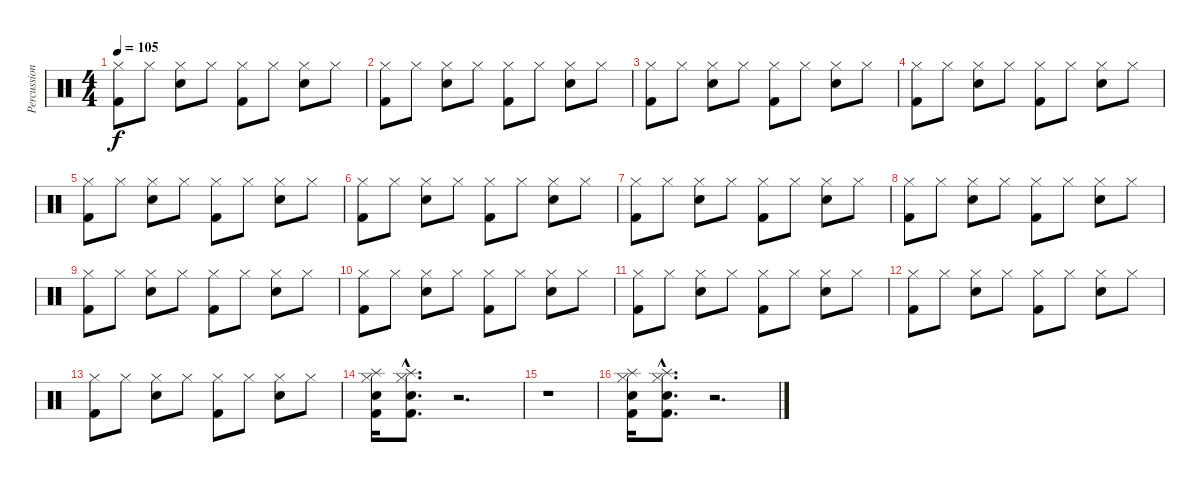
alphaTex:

\track ("Percussions" "Percussion") {instrument percussion}
\staff {score}
\articulation defaults
\ts (4 4)
\tempo 105
\clef neutral
\ks c
("Hi-Hat (closed)" "Kick (hit) 2").8{dy f} "Hi-Hat (closed)".8 ("Hi-Hat (closed)" "Electric Snare (hit)").8 "Hi-Hat (closed)".8 ("Hi-Hat (closed)" "Kick (hit) 2").8 "Hi-Hat (closed)".8 ("Hi-Hat (closed)" "Electric Snare (hit)").8 "Hi-Hat (closed)".8 |
("Hi-Hat (closed)" "Kick (hit) 2").8 "Hi-Hat (closed)".8 ("Hi-Hat (closed)" "Electric Snare (hit)").8 "Hi-Hat (closed)".8 ("Hi-Hat (closed)" "Kick (hit) 2").8 "Hi-Hat (closed)".8 ("Hi-Hat (closed)" "Electric Snare (hit)").8 "Hi-Hat (closed)".8 |
("Hi-Hat (closed)" "Kick (hit) 2").8 "Hi-Hat (closed)".8 ("Hi-Hat (closed)" "Electric Snare (hit)").8 "Hi-Hat (closed)".8 ("Hi-Hat (closed)" "Kick (hit) 2").8 "Hi-Hat (closed)".8 ("Hi-Hat (closed)" "Electric Snare (hit)").8 "Hi-Hat (closed)".8 |
("Hi-Hat (closed)" "Kick (hit) 2").8 "Hi-Hat (closed)".8 ("Hi-Hat (closed)" "Electric Snare (hit)").8 "Hi-Hat (closed)".8 ("Hi-Hat (closed)" "Kick (hit) 2").8 "Hi-Hat (closed)".8 ("Hi-Hat (closed)" "Electric Snare (hit)").8 "Hi-Hat (closed)".8 |
("Hi-Hat (closed)" "Kick (hit) 2").8 "Hi-Hat (closed)".8 ("Hi-Hat (closed)" "Electric Snare (hit)").8 "Hi-Hat (closed)".8 ("Hi-Hat (closed)" "Kick (hit) 2").8 "Hi-Hat (closed)".8 ("Hi-Hat (closed)" "Electric Snare (hit)").8 "Hi-Hat (closed)".8 |
("Hi-Hat (closed)" "Kick (hit) 2").8 "Hi-Hat (closed)".8 ("Hi-Hat (closed)" "Electric Snare (hit)").8 "Hi-Hat (closed)".8 ("Hi-Hat (closed)" "Kick (hit) 2").8 "Hi-Hat (closed)".8 ("Hi-Hat (closed)" "Electric Snare (hit)").8 "Hi-Hat (closed)".8 |
("Hi-Hat (closed)" "Kick (hit) 2").8 "Hi-Hat (closed)".8 ("Hi-Hat (closed)" "Electric Snare (hit)").8 "Hi-Hat (closed)".8 ("Hi-Hat (closed)" "Kick (hit) 2").8 "Hi-Hat (closed)".8 ("Hi-Hat (closed)" "Electric Snare (hit)").8 "Hi-Hat (closed)".8 |
("Hi-Hat (closed)" "Kick (hit) 2").8 "Hi-Hat (closed)".8 ("Hi-Hat (closed)" "Electric Snare (hit)").8 "Hi-Hat (closed)".8 ("Hi-Hat (closed)" "Kick (hit) 2").8 "Hi-Hat (closed)".8 ("Hi-Hat (closed)" "Electric Snare (hit)").8 "Hi-Hat (closed)".8 |
("Hi-Hat (closed)" "Kick (hit) 2").8 "Hi-Hat (closed)".8 ("Hi-Hat (closed)" "Electric Snare (hit)").8 "Hi-Hat (closed)".8 ("Hi-Hat (closed)" "Kick (hit) 2").8 "Hi-Hat (closed)".8 ("Hi-Hat (closed)" "Electric Snare (hit)").8 "Hi-Hat (closed)".8 |
("Hi-Hat (closed)" "Kick (hit) 2").8 "Hi-Hat (closed)".8 ("Hi-Hat (closed)" "Electric Snare (hit)").8 "Hi-Hat (closed)".8 ("Hi-Hat (closed)" "Kick (hit) 2").8 "Hi-Hat (closed)".8 ("Hi-Hat (closed)" "Electric Snare (hit)").8 "Hi-Hat (closed)".8 |
("Hi-Hat (closed)" "Kick (hit) 2").8 "Hi-Hat (closed)".8 ("Hi-Hat (closed)" "Electric Snare (hit)").8 "Hi-Hat (closed)".8 ("Hi-Hat (closed)" "Kick (hit) 2").8 "Hi-Hat (closed)".8 ("Hi-Hat (closed)" "Electric Snare (hit)").8 "Hi-Hat (closed)".8 |
("Hi-Hat (closed)" "Kick (hit) 2").8 "Hi-Hat (closed)".8 ("Hi-Hat (closed)" "Electric Snare (hit)").8 "Hi-Hat (closed)".8 ("Hi-Hat (closed)" "Kick (hit) 2").8 "Hi-Hat (closed)".8 ("Hi-Hat (closed)" "Electric Snare (hit)").8 "Hi-Hat (closed)".8 |
("Hi-Hat (closed)" "Kick (hit) 2").8 "Hi-Hat (closed)".8 ("Hi-Hat (closed)" "Electric Snare (hit)").8 "Hi-Hat (closed)".8 ("Hi-Hat (closed)" "Kick (hit) 2").8 "Hi-Hat (closed)".8 ("Hi-Hat (closed)" "Electric Snare (hit)").8 "Hi-Hat (closed)".8 |
("Electric Snare (hit)" "Hi-Hat (closed)" "Splash (hit)" "Kick (hit) 2").16 ("Electric Snare (hit)"{hac} "Hi-Hat (closed)"{hac} "Splash (hit)"{hac} "Kick (hit) 2"{hac}).8{d} r.2{d} |
r.1 |
("Electric Snare (hit)" "Hi-Hat (closed)" "Splash (hit)" "Kick (hit) 2").16 ("Electric Snare (hit)"{hac} "Hi-Hat (closed)"{hac} "Splash (hit)"{hac} "Kick (hit) 2"{hac}).8{d} r.2{d}
